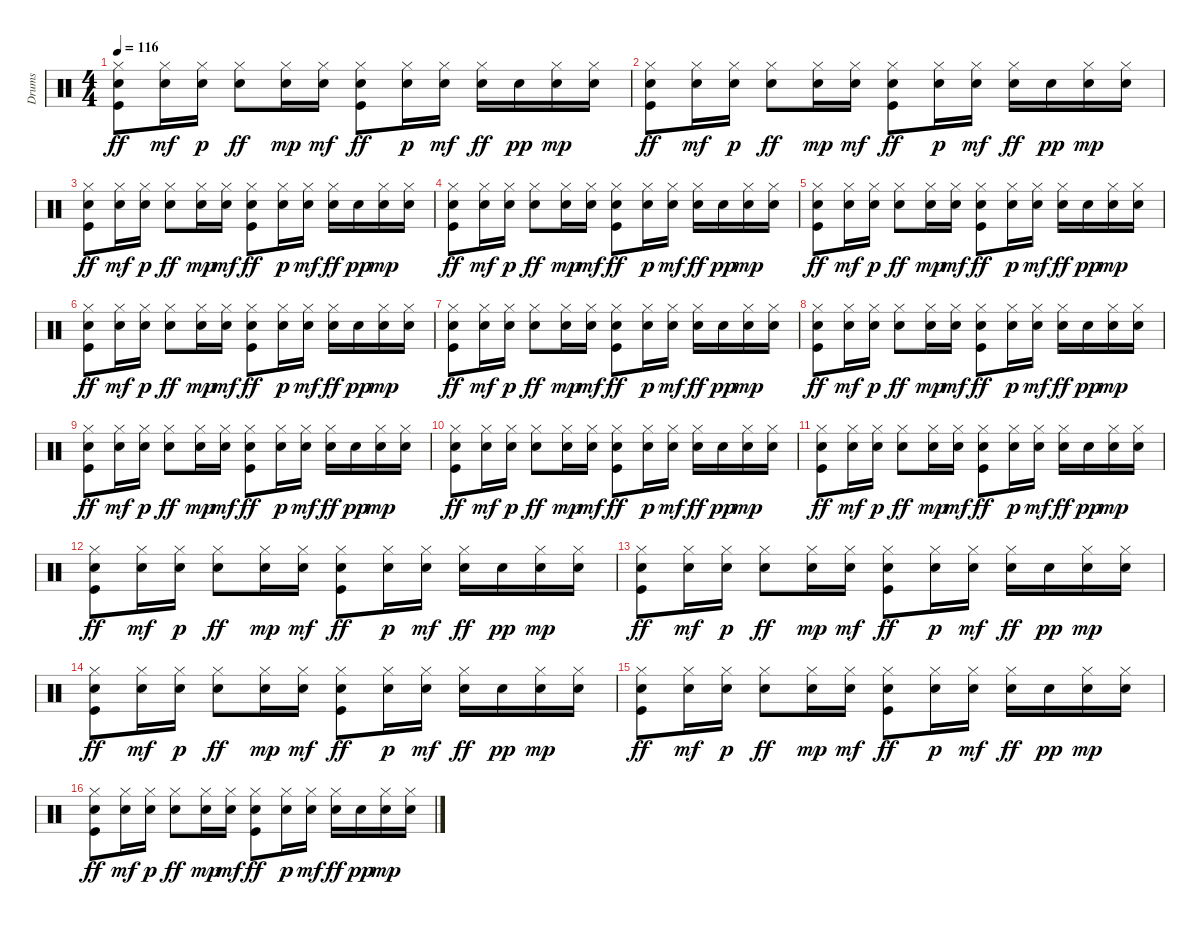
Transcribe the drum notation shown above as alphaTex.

\track ("Drums" "Drums") {instrument percussion}
\staff {score}
\articulation defaults
\ts (4 4)
\tempo 116
\clef neutral
\ks c
("Kick (hit)" "Snare (hit) 2" "Hi-Hat (closed)").8{dy ff} ("Snare (hit) 2" "Hi-Hat (closed)").16{dy mf} ("Snare (hit) 2" "Hi-Hat (closed)").16{dy p} ("Electric Snare (hit)" "Hi-Hat (closed)").8{dy ff} ("Snare (hit) 2" "Hi-Hat (closed)").16{dy mp} ("Snare (hit) 2" "Hi-Hat (closed)").16{dy mf} ("Kick (hit)" "Snare (hit) 2" "Hi-Hat (closed)").8{dy ff} ("Snare (hit) 2" "Hi-Hat (closed)").16{dy p} ("Snare (hit) 2" "Hi-Hat (closed)").16{dy mf} ("Electric Snare (hit)" "Hi-Hat (closed)").16{dy ff} "Snare (hit) 2".16{dy pp} ("Snare (hit) 2" "Hi-Hat (closed)").16{dy mp} ("Snare (hit) 2" "Hi-Hat (closed)").16 |
("Kick (hit)" "Snare (hit) 2" "Hi-Hat (closed)").8{dy ff} ("Snare (hit) 2" "Hi-Hat (closed)").16{dy mf} ("Snare (hit) 2" "Hi-Hat (closed)").16{dy p} ("Electric Snare (hit)" "Hi-Hat (closed)").8{dy ff} ("Snare (hit) 2" "Hi-Hat (closed)").16{dy mp} ("Snare (hit) 2" "Hi-Hat (closed)").16{dy mf} ("Kick (hit)" "Snare (hit) 2" "Hi-Hat (closed)").8{dy ff} ("Snare (hit) 2" "Hi-Hat (closed)").16{dy p} ("Snare (hit) 2" "Hi-Hat (closed)").16{dy mf} ("Electric Snare (hit)" "Hi-Hat (closed)").16{dy ff} "Snare (hit) 2".16{dy pp} ("Snare (hit) 2" "Hi-Hat (closed)").16{dy mp} ("Snare (hit) 2" "Hi-Hat (closed)").16 |
("Kick (hit)" "Snare (hit) 2" "Hi-Hat (closed)").8{dy ff} ("Snare (hit) 2" "Hi-Hat (closed)").16{dy mf} ("Snare (hit) 2" "Hi-Hat (closed)").16{dy p} ("Electric Snare (hit)" "Hi-Hat (closed)").8{dy ff} ("Snare (hit) 2" "Hi-Hat (closed)").16{dy mp} ("Snare (hit) 2" "Hi-Hat (closed)").16{dy mf} ("Kick (hit)" "Snare (hit) 2" "Hi-Hat (closed)").8{dy ff} ("Snare (hit) 2" "Hi-Hat (closed)").16{dy p} ("Snare (hit) 2" "Hi-Hat (closed)").16{dy mf} ("Electric Snare (hit)" "Hi-Hat (closed)").16{dy ff} "Snare (hit) 2".16{dy pp} ("Snare (hit) 2" "Hi-Hat (closed)").16{dy mp} ("Snare (hit) 2" "Hi-Hat (closed)").16 |
("Kick (hit)" "Snare (hit) 2" "Hi-Hat (closed)").8{dy ff} ("Snare (hit) 2" "Hi-Hat (closed)").16{dy mf} ("Snare (hit) 2" "Hi-Hat (closed)").16{dy p} ("Electric Snare (hit)" "Hi-Hat (closed)").8{dy ff} ("Snare (hit) 2" "Hi-Hat (closed)").16{dy mp} ("Snare (hit) 2" "Hi-Hat (closed)").16{dy mf} ("Kick (hit)" "Snare (hit) 2" "Hi-Hat (closed)").8{dy ff} ("Snare (hit) 2" "Hi-Hat (closed)").16{dy p} ("Snare (hit) 2" "Hi-Hat (closed)").16{dy mf} ("Electric Snare (hit)" "Hi-Hat (closed)").16{dy ff} "Snare (hit) 2".16{dy pp} ("Snare (hit) 2" "Hi-Hat (closed)").16{dy mp} ("Snare (hit) 2" "Hi-Hat (closed)").16 |
("Kick (hit)" "Snare (hit) 2" "Hi-Hat (closed)").8{dy ff} ("Snare (hit) 2" "Hi-Hat (closed)").16{dy mf} ("Snare (hit) 2" "Hi-Hat (closed)").16{dy p} ("Electric Snare (hit)" "Hi-Hat (closed)").8{dy ff} ("Snare (hit) 2" "Hi-Hat (closed)").16{dy mp} ("Snare (hit) 2" "Hi-Hat (closed)").16{dy mf} ("Kick (hit)" "Snare (hit) 2" "Hi-Hat (closed)").8{dy ff} ("Snare (hit) 2" "Hi-Hat (closed)").16{dy p} ("Snare (hit) 2" "Hi-Hat (closed)").16{dy mf} ("Electric Snare (hit)" "Hi-Hat (closed)").16{dy ff} "Snare (hit) 2".16{dy pp} ("Snare (hit) 2" "Hi-Hat (closed)").16{dy mp} ("Snare (hit) 2" "Hi-Hat (closed)").16 |
("Kick (hit)" "Snare (hit) 2" "Hi-Hat (closed)").8{dy ff} ("Snare (hit) 2" "Hi-Hat (closed)").16{dy mf} ("Snare (hit) 2" "Hi-Hat (closed)").16{dy p} ("Electric Snare (hit)" "Hi-Hat (closed)").8{dy ff} ("Snare (hit) 2" "Hi-Hat (closed)").16{dy mp} ("Snare (hit) 2" "Hi-Hat (closed)").16{dy mf} ("Kick (hit)" "Snare (hit) 2" "Hi-Hat (closed)").8{dy ff} ("Snare (hit) 2" "Hi-Hat (closed)").16{dy p} ("Snare (hit) 2" "Hi-Hat (closed)").16{dy mf} ("Electric Snare (hit)" "Hi-Hat (closed)").16{dy ff} "Snare (hit) 2".16{dy pp} ("Snare (hit) 2" "Hi-Hat (closed)").16{dy mp} ("Snare (hit) 2" "Hi-Hat (closed)").16 |
("Kick (hit)" "Snare (hit) 2" "Hi-Hat (closed)").8{dy ff} ("Snare (hit) 2" "Hi-Hat (closed)").16{dy mf} ("Snare (hit) 2" "Hi-Hat (closed)").16{dy p} ("Electric Snare (hit)" "Hi-Hat (closed)").8{dy ff} ("Snare (hit) 2" "Hi-Hat (closed)").16{dy mp} ("Snare (hit) 2" "Hi-Hat (closed)").16{dy mf} ("Kick (hit)" "Snare (hit) 2" "Hi-Hat (closed)").8{dy ff} ("Snare (hit) 2" "Hi-Hat (closed)").16{dy p} ("Snare (hit) 2" "Hi-Hat (closed)").16{dy mf} ("Electric Snare (hit)" "Hi-Hat (closed)").16{dy ff} "Snare (hit) 2".16{dy pp} ("Snare (hit) 2" "Hi-Hat (closed)").16{dy mp} ("Snare (hit) 2" "Hi-Hat (closed)").16 |
("Kick (hit)" "Snare (hit) 2" "Hi-Hat (closed)").8{dy ff} ("Snare (hit) 2" "Hi-Hat (closed)").16{dy mf} ("Snare (hit) 2" "Hi-Hat (closed)").16{dy p} ("Electric Snare (hit)" "Hi-Hat (closed)").8{dy ff} ("Snare (hit) 2" "Hi-Hat (closed)").16{dy mp} ("Snare (hit) 2" "Hi-Hat (closed)").16{dy mf} ("Kick (hit)" "Snare (hit) 2" "Hi-Hat (closed)").8{dy ff} ("Snare (hit) 2" "Hi-Hat (closed)").16{dy p} ("Snare (hit) 2" "Hi-Hat (closed)").16{dy mf} ("Electric Snare (hit)" "Hi-Hat (closed)").16{dy ff} "Snare (hit) 2".16{dy pp} ("Snare (hit) 2" "Hi-Hat (closed)").16{dy mp} ("Snare (hit) 2" "Hi-Hat (closed)").16 |
("Kick (hit)" "Snare (hit) 2" "Hi-Hat (closed)").8{dy ff} ("Snare (hit) 2" "Hi-Hat (closed)").16{dy mf} ("Snare (hit) 2" "Hi-Hat (closed)").16{dy p} ("Electric Snare (hit)" "Hi-Hat (closed)").8{dy ff} ("Snare (hit) 2" "Hi-Hat (closed)").16{dy mp} ("Snare (hit) 2" "Hi-Hat (closed)").16{dy mf} ("Kick (hit)" "Snare (hit) 2" "Hi-Hat (closed)").8{dy ff} ("Snare (hit) 2" "Hi-Hat (closed)").16{dy p} ("Snare (hit) 2" "Hi-Hat (closed)").16{dy mf} ("Electric Snare (hit)" "Hi-Hat (closed)").16{dy ff} "Snare (hit) 2".16{dy pp} ("Snare (hit) 2" "Hi-Hat (closed)").16{dy mp} ("Snare (hit) 2" "Hi-Hat (closed)").16 |
("Kick (hit)" "Snare (hit) 2" "Hi-Hat (closed)").8{dy ff} ("Snare (hit) 2" "Hi-Hat (closed)").16{dy mf} ("Snare (hit) 2" "Hi-Hat (closed)").16{dy p} ("Electric Snare (hit)" "Hi-Hat (closed)").8{dy ff} ("Snare (hit) 2" "Hi-Hat (closed)").16{dy mp} ("Snare (hit) 2" "Hi-Hat (closed)").16{dy mf} ("Kick (hit)" "Snare (hit) 2" "Hi-Hat (closed)").8{dy ff} ("Snare (hit) 2" "Hi-Hat (closed)").16{dy p} ("Snare (hit) 2" "Hi-Hat (closed)").16{dy mf} ("Electric Snare (hit)" "Hi-Hat (closed)").16{dy ff} "Snare (hit) 2".16{dy pp} ("Snare (hit) 2" "Hi-Hat (closed)").16{dy mp} ("Snare (hit) 2" "Hi-Hat (closed)").16 |
("Kick (hit)" "Snare (hit) 2" "Hi-Hat (closed)").8{dy ff} ("Snare (hit) 2" "Hi-Hat (closed)").16{dy mf} ("Snare (hit) 2" "Hi-Hat (closed)").16{dy p} ("Electric Snare (hit)" "Hi-Hat (closed)").8{dy ff} ("Snare (hit) 2" "Hi-Hat (closed)").16{dy mp} ("Snare (hit) 2" "Hi-Hat (closed)").16{dy mf} ("Kick (hit)" "Snare (hit) 2" "Hi-Hat (closed)").8{dy ff} ("Snare (hit) 2" "Hi-Hat (closed)").16{dy p} ("Snare (hit) 2" "Hi-Hat (closed)").16{dy mf} ("Electric Snare (hit)" "Hi-Hat (closed)").16{dy ff} "Snare (hit) 2".16{dy pp} ("Snare (hit) 2" "Hi-Hat (closed)").16{dy mp} ("Snare (hit) 2" "Hi-Hat (closed)").16 |
("Kick (hit)" "Snare (hit) 2" "Hi-Hat (closed)").8{dy ff} ("Snare (hit) 2" "Hi-Hat (closed)").16{dy mf} ("Snare (hit) 2" "Hi-Hat (closed)").16{dy p} ("Electric Snare (hit)" "Hi-Hat (closed)").8{dy ff} ("Snare (hit) 2" "Hi-Hat (closed)").16{dy mp} ("Snare (hit) 2" "Hi-Hat (closed)").16{dy mf} ("Kick (hit)" "Snare (hit) 2" "Hi-Hat (closed)").8{dy ff} ("Snare (hit) 2" "Hi-Hat (closed)").16{dy p} ("Snare (hit) 2" "Hi-Hat (closed)").16{dy mf} ("Electric Snare (hit)" "Hi-Hat (closed)").16{dy ff} "Snare (hit) 2".16{dy pp} ("Snare (hit) 2" "Hi-Hat (closed)").16{dy mp} ("Snare (hit) 2" "Hi-Hat (closed)").16 |
("Kick (hit)" "Snare (hit) 2" "Hi-Hat (closed)").8{dy ff} ("Snare (hit) 2" "Hi-Hat (closed)").16{dy mf} ("Snare (hit) 2" "Hi-Hat (closed)").16{dy p} ("Electric Snare (hit)" "Hi-Hat (closed)").8{dy ff} ("Snare (hit) 2" "Hi-Hat (closed)").16{dy mp} ("Snare (hit) 2" "Hi-Hat (closed)").16{dy mf} ("Kick (hit)" "Snare (hit) 2" "Hi-Hat (closed)").8{dy ff} ("Snare (hit) 2" "Hi-Hat (closed)").16{dy p} ("Snare (hit) 2" "Hi-Hat (closed)").16{dy mf} ("Electric Snare (hit)" "Hi-Hat (closed)").16{dy ff} "Snare (hit) 2".16{dy pp} ("Snare (hit) 2" "Hi-Hat (closed)").16{dy mp} ("Snare (hit) 2" "Hi-Hat (closed)").16 |
("Kick (hit)" "Snare (hit) 2" "Hi-Hat (closed)").8{dy ff} ("Snare (hit) 2" "Hi-Hat (closed)").16{dy mf} ("Snare (hit) 2" "Hi-Hat (closed)").16{dy p} ("Electric Snare (hit)" "Hi-Hat (closed)").8{dy ff} ("Snare (hit) 2" "Hi-Hat (closed)").16{dy mp} ("Snare (hit) 2" "Hi-Hat (closed)").16{dy mf} ("Kick (hit)" "Snare (hit) 2" "Hi-Hat (closed)").8{dy ff} ("Snare (hit) 2" "Hi-Hat (closed)").16{dy p} ("Snare (hit) 2" "Hi-Hat (closed)").16{dy mf} ("Electric Snare (hit)" "Hi-Hat (closed)").16{dy ff} "Snare (hit) 2".16{dy pp} ("Snare (hit) 2" "Hi-Hat (closed)").16{dy mp} ("Snare (hit) 2" "Hi-Hat (closed)").16 |
("Kick (hit)" "Snare (hit) 2" "Hi-Hat (closed)").8{dy ff} ("Snare (hit) 2" "Hi-Hat (closed)").16{dy mf} ("Snare (hit) 2" "Hi-Hat (closed)").16{dy p} ("Electric Snare (hit)" "Hi-Hat (closed)").8{dy ff} ("Snare (hit) 2" "Hi-Hat (closed)").16{dy mp} ("Snare (hit) 2" "Hi-Hat (closed)").16{dy mf} ("Kick (hit)" "Snare (hit) 2" "Hi-Hat (closed)").8{dy ff} ("Snare (hit) 2" "Hi-Hat (closed)").16{dy p} ("Snare (hit) 2" "Hi-Hat (closed)").16{dy mf} ("Electric Snare (hit)" "Hi-Hat (closed)").16{dy ff} "Snare (hit) 2".16{dy pp} ("Snare (hit) 2" "Hi-Hat (closed)").16{dy mp} ("Snare (hit) 2" "Hi-Hat (closed)").16 |
("Kick (hit)" "Snare (hit) 2" "Hi-Hat (closed)").8{dy ff} ("Snare (hit) 2" "Hi-Hat (closed)").16{dy mf} ("Snare (hit) 2" "Hi-Hat (closed)").16{dy p} ("Electric Snare (hit)" "Hi-Hat (closed)").8{dy ff} ("Snare (hit) 2" "Hi-Hat (closed)").16{dy mp} ("Snare (hit) 2" "Hi-Hat (closed)").16{dy mf} ("Kick (hit)" "Snare (hit) 2" "Hi-Hat (closed)").8{dy ff} ("Snare (hit) 2" "Hi-Hat (closed)").16{dy p} ("Snare (hit) 2" "Hi-Hat (closed)").16{dy mf} ("Electric Snare (hit)" "Hi-Hat (closed)").16{dy ff} "Snare (hit) 2".16{dy pp} ("Snare (hit) 2" "Hi-Hat (closed)").16{dy mp} ("Snare (hit) 2" "Hi-Hat (closed)").16
